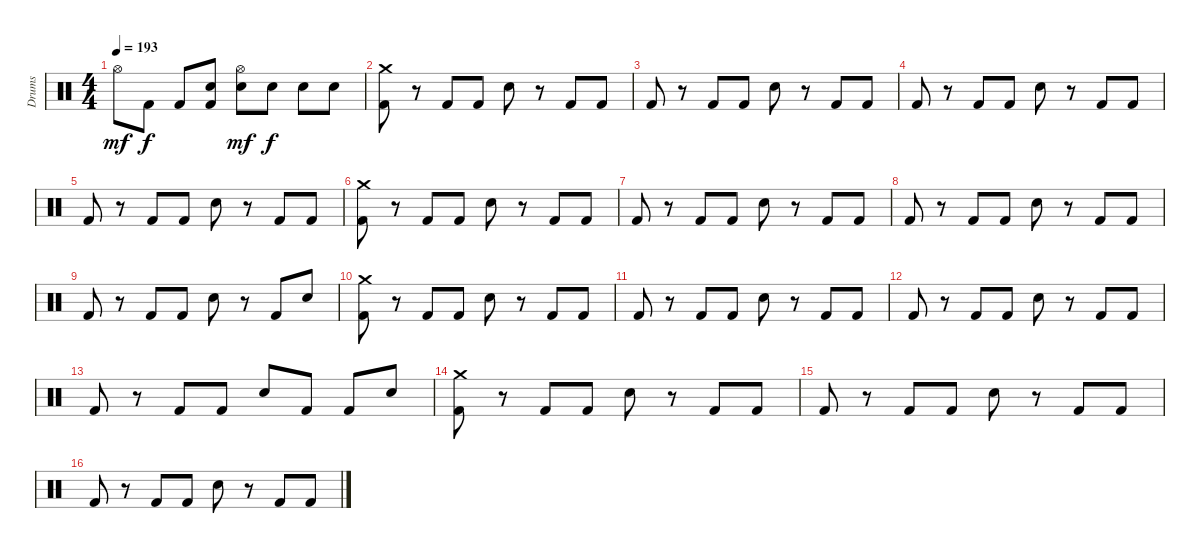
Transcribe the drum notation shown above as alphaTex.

\track ("Drums" "Drums") {instrument percussion}
\staff {score}
\articulation defaults
\ts (4 4)
\tempo 193
\clef neutral
\ks c "Hi-Hat (open)".8{dy mf} "Kick (hit) 2".8{dy f} "Kick (hit) 2".8
("Snare (hit) 2" "Kick (hit) 2").8 ("Hi-Hat (open)" "Snare (hit) 2").8{dy mf} "Snare (hit) 2".8{dy f} "Snare (hit) 2".8 "Snare (hit) 2".8 |
("Crash medium (hit)" "Kick (hit) 2").8 r.8 "Kick (hit) 2".8 "Kick (hit) 2".8 "Snare (hit) 2".8 r.8 "Kick (hit) 2".8 "Kick (hit) 2".8 |
"Kick (hit) 2".8 r.8 "Kick (hit) 2".8 "Kick (hit) 2".8 "Snare (hit) 2".8 r.8 "Kick (hit) 2".8 "Kick (hit) 2".8 |
"Kick (hit) 2".8 r.8 "Kick (hit) 2".8 "Kick (hit) 2".8 "Snare (hit) 2".8 r.8 "Kick (hit) 2".8 "Kick (hit) 2".8 |
"Kick (hit) 2".8 r.8 "Kick (hit) 2".8 "Kick (hit) 2".8 "Snare (hit) 2".8 r.8 "Kick (hit) 2".8 "Kick (hit) 2".8 |
("Crash medium (hit)" "Kick (hit) 2").8 r.8 "Kick (hit) 2".8 "Kick (hit) 2".8 "Snare (hit) 2".8 r.8 "Kick (hit) 2".8 "Kick (hit) 2".8 |
"Kick (hit) 2".8 r.8 "Kick (hit) 2".8 "Kick (hit) 2".8 "Snare (hit) 2".8 r.8 "Kick (hit) 2".8 "Kick (hit) 2".8 |
"Kick (hit) 2".8 r.8 "Kick (hit) 2".8 "Kick (hit) 2".8 "Snare (hit) 2".8 r.8 "Kick (hit) 2".8 "Kick (hit) 2".8 |
"Kick (hit) 2".8 r.8 "Kick (hit) 2".8 "Kick (hit) 2".8 "Snare (hit) 2".8 r.8 "Kick (hit) 2".8 "Snare (hit) 2".8 |
("Crash medium (hit)" "Kick (hit) 2").8 r.8 "Kick (hit) 2".8 "Kick (hit) 2".8 "Snare (hit) 2".8 r.8 "Kick (hit) 2".8 "Kick (hit) 2".8 |
"Kick (hit) 2".8 r.8 "Kick (hit) 2".8 "Kick (hit) 2".8 "Snare (hit) 2".8 r.8 "Kick (hit) 2".8 "Kick (hit) 2".8 |
"Kick (hit) 2".8 r.8 "Kick (hit) 2".8 "Kick (hit) 2".8 "Snare (hit) 2".8 r.8 "Kick (hit) 2".8 "Kick (hit) 2".8 |
"Kick (hit) 2".8 r.8 "Kick (hit) 2".8 "Kick (hit) 2".8 "Snare (hit) 2".8 "Kick (hit) 2".8 "Kick (hit) 2".8 "Snare (hit) 2".8 |
("Crash medium (hit)" "Kick (hit) 2").8 r.8 "Kick (hit) 2".8 "Kick (hit) 2".8 "Snare (hit) 2".8 r.8 "Kick (hit) 2".8 "Kick (hit) 2".8 |
"Kick (hit) 2".8 r.8 "Kick (hit) 2".8 "Kick (hit) 2".8 "Snare (hit) 2".8 r.8 "Kick (hit) 2".8 "Kick (hit) 2".8 |
"Kick (hit) 2".8 r.8 "Kick (hit) 2".8 "Kick (hit) 2".8 "Snare (hit) 2".8 r.8 "Kick (hit) 2".8 "Kick (hit) 2".8
